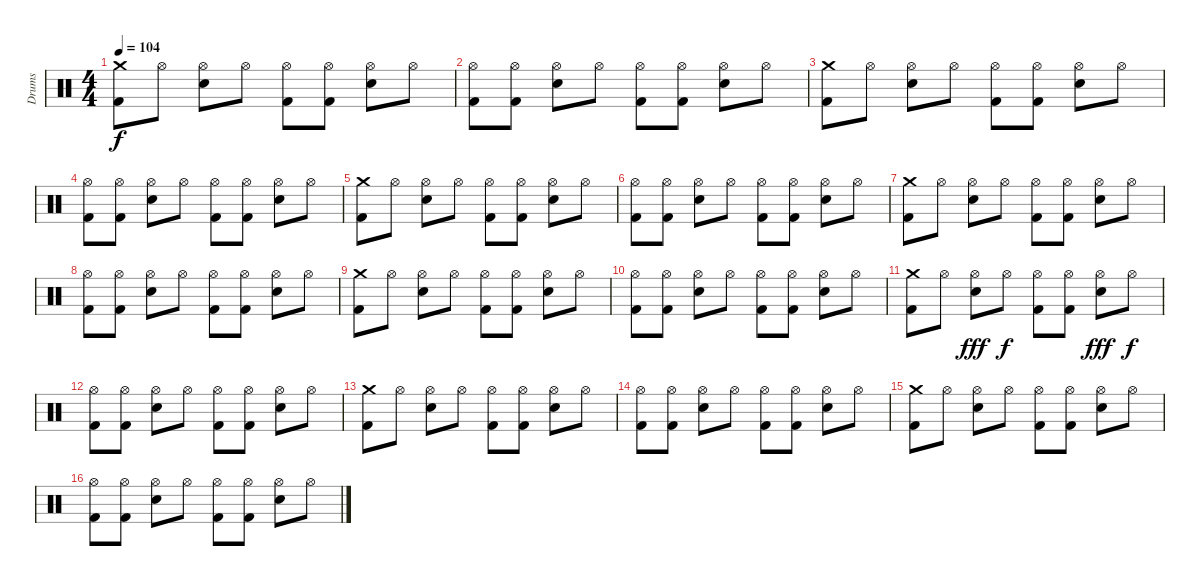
\track ("Drums" "Drums") {instrument percussion}
\staff {score}
\articulation defaults
\ts (4 4)
\tempo 104
\clef neutral
\ks c
("Crash medium (hit)" "Kick (hit) 2").8{dy f} "Hi-Hat (open)".8 ("Hi-Hat (open)" "Snare (hit) 2").8 "Hi-Hat (open)".8 ("Hi-Hat (open)" "Kick (hit) 2").8 ("Hi-Hat (open)" "Kick (hit) 2").8 ("Hi-Hat (open)" "Snare (hit) 2").8 "Hi-Hat (open)".8 |
("Hi-Hat (open)" "Kick (hit) 2").8 ("Hi-Hat (open)" "Kick (hit) 2").8 ("Hi-Hat (open)" "Snare (hit) 2").8 "Hi-Hat (open)".8 ("Hi-Hat (open)" "Kick (hit) 2").8 ("Hi-Hat (open)" "Kick (hit) 2").8 ("Hi-Hat (open)" "Snare (hit) 2").8 "Hi-Hat (open)".8 |
("Crash medium (hit)" "Kick (hit) 2").8 "Hi-Hat (open)".8 ("Hi-Hat (open)" "Snare (hit) 2").8 "Hi-Hat (open)".8 ("Hi-Hat (open)" "Kick (hit) 2").8 ("Hi-Hat (open)" "Kick (hit) 2").8 ("Hi-Hat (open)" "Snare (hit) 2").8 "Hi-Hat (open)".8 |
("Hi-Hat (open)" "Kick (hit) 2").8 ("Hi-Hat (open)" "Kick (hit) 2").8 ("Hi-Hat (open)" "Snare (hit) 2").8 "Hi-Hat (open)".8 ("Hi-Hat (open)" "Kick (hit) 2").8 ("Hi-Hat (open)" "Kick (hit) 2").8 ("Hi-Hat (open)" "Snare (hit) 2").8 "Hi-Hat (open)".8 |
("Crash medium (hit)" "Kick (hit) 2").8 "Hi-Hat (open)".8 ("Hi-Hat (open)" "Snare (hit) 2").8 "Hi-Hat (open)".8 ("Hi-Hat (open)" "Kick (hit) 2").8 ("Hi-Hat (open)" "Kick (hit) 2").8 ("Hi-Hat (open)" "Snare (hit) 2").8 "Hi-Hat (open)".8 |
("Hi-Hat (open)" "Kick (hit) 2").8 ("Hi-Hat (open)" "Kick (hit) 2").8 ("Hi-Hat (open)" "Snare (hit) 2").8 "Hi-Hat (open)".8 ("Hi-Hat (open)" "Kick (hit) 2").8 ("Hi-Hat (open)" "Kick (hit) 2").8 ("Hi-Hat (open)" "Snare (hit) 2").8 "Hi-Hat (open)".8 |
("Crash medium (hit)" "Kick (hit) 2").8 "Hi-Hat (open)".8 ("Hi-Hat (open)" "Snare (hit) 2").8 "Hi-Hat (open)".8 ("Hi-Hat (open)" "Kick (hit) 2").8 ("Hi-Hat (open)" "Kick (hit) 2").8 ("Hi-Hat (open)" "Snare (hit) 2").8 "Hi-Hat (open)".8 |
("Hi-Hat (open)" "Kick (hit) 2").8 ("Hi-Hat (open)" "Kick (hit) 2").8 ("Hi-Hat (open)" "Snare (hit) 2").8 "Hi-Hat (open)".8 ("Hi-Hat (open)" "Kick (hit) 2").8 ("Hi-Hat (open)" "Kick (hit) 2").8 ("Hi-Hat (open)" "Snare (hit) 2").8 "Hi-Hat (open)".8 |
("Crash medium (hit)" "Kick (hit) 2").8 "Hi-Hat (open)".8 ("Hi-Hat (open)" "Snare (hit) 2").8 "Hi-Hat (open)".8 ("Hi-Hat (open)" "Kick (hit) 2").8 ("Hi-Hat (open)" "Kick (hit) 2").8 ("Hi-Hat (open)" "Snare (hit) 2").8 "Hi-Hat (open)".8 |
("Hi-Hat (open)" "Kick (hit) 2").8 ("Hi-Hat (open)" "Kick (hit) 2").8 ("Hi-Hat (open)" "Snare (hit) 2").8 "Hi-Hat (open)".8 ("Hi-Hat (open)" "Kick (hit) 2").8 ("Hi-Hat (open)" "Kick (hit) 2").8 ("Hi-Hat (open)" "Snare (hit) 2").8 "Hi-Hat (open)".8 |
("Crash medium (hit)" "Kick (hit) 2").8 "Hi-Hat (open)".8 ("Hi-Hat (open)" "Snare (hit) 2").8{dy fff} "Hi-Hat (open)".8{dy f} ("Hi-Hat (open)" "Kick (hit) 2").8 ("Hi-Hat (open)" "Kick (hit) 2").8 ("Hi-Hat (open)" "Snare (hit) 2").8{dy fff} "Hi-Hat (open)".8{dy f} |
("Hi-Hat (open)" "Kick (hit) 2").8 ("Hi-Hat (open)" "Kick (hit) 2").8 ("Hi-Hat (open)" "Snare (hit) 2").8 "Hi-Hat (open)".8 ("Hi-Hat (open)" "Kick (hit) 2").8 ("Hi-Hat (open)" "Kick (hit) 2").8 ("Hi-Hat (open)" "Snare (hit) 2").8 "Hi-Hat (open)".8 |
("Crash medium (hit)" "Kick (hit) 2").8 "Hi-Hat (open)".8 ("Hi-Hat (open)" "Snare (hit) 2").8 "Hi-Hat (open)".8 ("Hi-Hat (open)" "Kick (hit) 2").8 ("Hi-Hat (open)" "Kick (hit) 2").8 ("Hi-Hat (open)" "Snare (hit) 2").8 "Hi-Hat (open)".8 |
("Hi-Hat (open)" "Kick (hit) 2").8 ("Hi-Hat (open)" "Kick (hit) 2").8 ("Hi-Hat (open)" "Snare (hit) 2").8 "Hi-Hat (open)".8 ("Hi-Hat (open)" "Kick (hit) 2").8 ("Hi-Hat (open)" "Kick (hit) 2").8 ("Hi-Hat (open)" "Snare (hit) 2").8 "Hi-Hat (open)".8 |
("Crash medium (hit)" "Kick (hit) 2").8 "Hi-Hat (open)".8 ("Hi-Hat (open)" "Snare (hit) 2").8 "Hi-Hat (open)".8 ("Hi-Hat (open)" "Kick (hit) 2").8 ("Hi-Hat (open)" "Kick (hit) 2").8 ("Hi-Hat (open)" "Snare (hit) 2").8 "Hi-Hat (open)".8 |
("Hi-Hat (open)" "Kick (hit) 2").8 ("Hi-Hat (open)" "Kick (hit) 2").8 ("Hi-Hat (open)" "Snare (hit) 2").8 "Hi-Hat (open)".8 ("Hi-Hat (open)" "Kick (hit) 2").8 ("Hi-Hat (open)" "Kick (hit) 2").8 ("Hi-Hat (open)" "Snare (hit) 2").8 "Hi-Hat (open)".8
